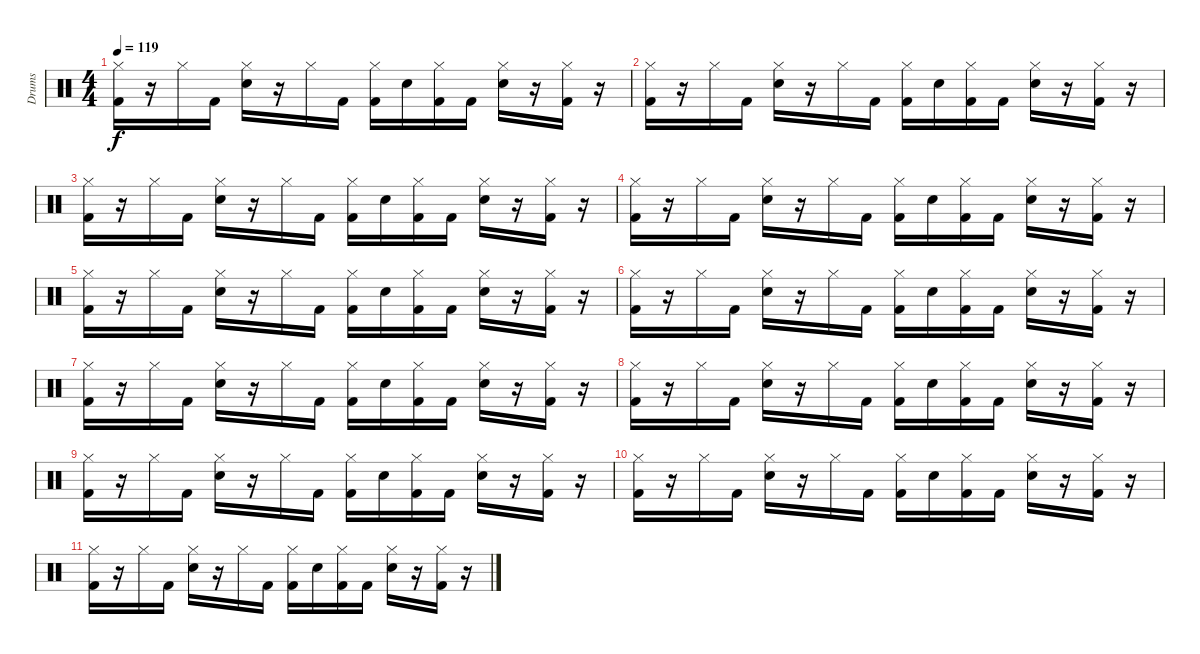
\track ("Drums" "Drums") {instrument percussion}
\staff {score}
\articulation defaults
\ts (4 4)
\tempo 119
\clef neutral
\ks c
("Kick (hit) 2" "Hi-Hat (closed)").16{dy f} r.16 "Hi-Hat (closed)".16 "Kick (hit) 2".16 ("Snare (hit) 2" "Hi-Hat (closed)").16 r.16 "Hi-Hat (closed)".16 "Kick (hit) 2".16 ("Kick (hit) 2" "Hi-Hat (closed)").16 "Snare (hit) 2".16 ("Kick (hit) 2" "Hi-Hat (closed)").16 "Kick (hit) 2".16 ("Snare (hit) 2" "Hi-Hat (closed)").16 r.16 ("Kick (hit) 2" "Hi-Hat (closed)").16 r.16 |
("Kick (hit) 2" "Hi-Hat (closed)").16 r.16 "Hi-Hat (closed)".16 "Kick (hit) 2".16 ("Snare (hit) 2" "Hi-Hat (closed)").16 r.16 "Hi-Hat (closed)".16 "Kick (hit) 2".16 ("Kick (hit) 2" "Hi-Hat (closed)").16 "Snare (hit) 2".16 ("Kick (hit) 2" "Hi-Hat (closed)").16 "Kick (hit) 2".16 ("Snare (hit) 2" "Hi-Hat (closed)").16 r.16 ("Kick (hit) 2" "Hi-Hat (closed)").16 r.16 |
("Kick (hit) 2" "Hi-Hat (closed)").16 r.16 "Hi-Hat (closed)".16 "Kick (hit) 2".16 ("Snare (hit) 2" "Hi-Hat (closed)").16 r.16 "Hi-Hat (closed)".16 "Kick (hit) 2".16 ("Kick (hit) 2" "Hi-Hat (closed)").16 "Snare (hit) 2".16 ("Kick (hit) 2" "Hi-Hat (closed)").16 "Kick (hit) 2".16 ("Snare (hit) 2" "Hi-Hat (closed)").16 r.16 ("Kick (hit) 2" "Hi-Hat (closed)").16 r.16 |
("Kick (hit) 2" "Hi-Hat (closed)").16 r.16 "Hi-Hat (closed)".16 "Kick (hit) 2".16 ("Snare (hit) 2" "Hi-Hat (closed)").16 r.16 "Hi-Hat (closed)".16 "Kick (hit) 2".16 ("Kick (hit) 2" "Hi-Hat (closed)").16 "Snare (hit) 2".16 ("Kick (hit) 2" "Hi-Hat (closed)").16 "Kick (hit) 2".16 ("Snare (hit) 2" "Hi-Hat (closed)").16 r.16 ("Kick (hit) 2" "Hi-Hat (closed)").16 r.16 |
("Kick (hit) 2" "Hi-Hat (closed)").16 r.16 "Hi-Hat (closed)".16 "Kick (hit) 2".16 ("Snare (hit) 2" "Hi-Hat (closed)").16 r.16 "Hi-Hat (closed)".16 "Kick (hit) 2".16 ("Kick (hit) 2" "Hi-Hat (closed)").16 "Snare (hit) 2".16 ("Kick (hit) 2" "Hi-Hat (closed)").16 "Kick (hit) 2".16 ("Snare (hit) 2" "Hi-Hat (closed)").16 r.16 ("Kick (hit) 2" "Hi-Hat (closed)").16 r.16 |
("Kick (hit) 2" "Hi-Hat (closed)").16 r.16 "Hi-Hat (closed)".16 "Kick (hit) 2".16 ("Snare (hit) 2" "Hi-Hat (closed)").16 r.16 "Hi-Hat (closed)".16 "Kick (hit) 2".16 ("Kick (hit) 2" "Hi-Hat (closed)").16 "Snare (hit) 2".16 ("Kick (hit) 2" "Hi-Hat (closed)").16 "Kick (hit) 2".16 ("Snare (hit) 2" "Hi-Hat (closed)").16 r.16 ("Kick (hit) 2" "Hi-Hat (closed)").16 r.16 |
("Kick (hit) 2" "Hi-Hat (closed)").16 r.16 "Hi-Hat (closed)".16 "Kick (hit) 2".16 ("Snare (hit) 2" "Hi-Hat (closed)").16 r.16 "Hi-Hat (closed)".16 "Kick (hit) 2".16 ("Kick (hit) 2" "Hi-Hat (closed)").16 "Snare (hit) 2".16 ("Kick (hit) 2" "Hi-Hat (closed)").16 "Kick (hit) 2".16 ("Snare (hit) 2" "Hi-Hat (closed)").16 r.16 ("Kick (hit) 2" "Hi-Hat (closed)").16 r.16 |
("Kick (hit) 2" "Hi-Hat (closed)").16 r.16 "Hi-Hat (closed)".16 "Kick (hit) 2".16 ("Snare (hit) 2" "Hi-Hat (closed)").16 r.16 "Hi-Hat (closed)".16 "Kick (hit) 2".16 ("Kick (hit) 2" "Hi-Hat (closed)").16 "Snare (hit) 2".16 ("Kick (hit) 2" "Hi-Hat (closed)").16 "Kick (hit) 2".16 ("Snare (hit) 2" "Hi-Hat (closed)").16 r.16 ("Kick (hit) 2" "Hi-Hat (closed)").16 r.16 |
("Kick (hit) 2" "Hi-Hat (closed)").16 r.16 "Hi-Hat (closed)".16 "Kick (hit) 2".16 ("Snare (hit) 2" "Hi-Hat (closed)").16 r.16 "Hi-Hat (closed)".16 "Kick (hit) 2".16 ("Kick (hit) 2" "Hi-Hat (closed)").16 "Snare (hit) 2".16 ("Kick (hit) 2" "Hi-Hat (closed)").16 "Kick (hit) 2".16 ("Snare (hit) 2" "Hi-Hat (closed)").16 r.16 ("Kick (hit) 2" "Hi-Hat (closed)").16 r.16 |
("Kick (hit) 2" "Hi-Hat (closed)").16 r.16 "Hi-Hat (closed)".16 "Kick (hit) 2".16 ("Snare (hit) 2" "Hi-Hat (closed)").16 r.16 "Hi-Hat (closed)".16 "Kick (hit) 2".16 ("Kick (hit) 2" "Hi-Hat (closed)").16 "Snare (hit) 2".16 ("Kick (hit) 2" "Hi-Hat (closed)").16 "Kick (hit) 2".16 ("Snare (hit) 2" "Hi-Hat (closed)").16 r.16 ("Kick (hit) 2" "Hi-Hat (closed)").16 r.16 |
("Kick (hit) 2" "Hi-Hat (closed)").16 r.16 "Hi-Hat (closed)".16 "Kick (hit) 2".16 ("Snare (hit) 2" "Hi-Hat (closed)").16 r.16 "Hi-Hat (closed)".16 "Kick (hit) 2".16 ("Kick (hit) 2" "Hi-Hat (closed)").16 "Snare (hit) 2".16 ("Kick (hit) 2" "Hi-Hat (closed)").16 "Kick (hit) 2".16 ("Snare (hit) 2" "Hi-Hat (closed)").16 r.16 ("Kick (hit) 2" "Hi-Hat (closed)").16 r.16
